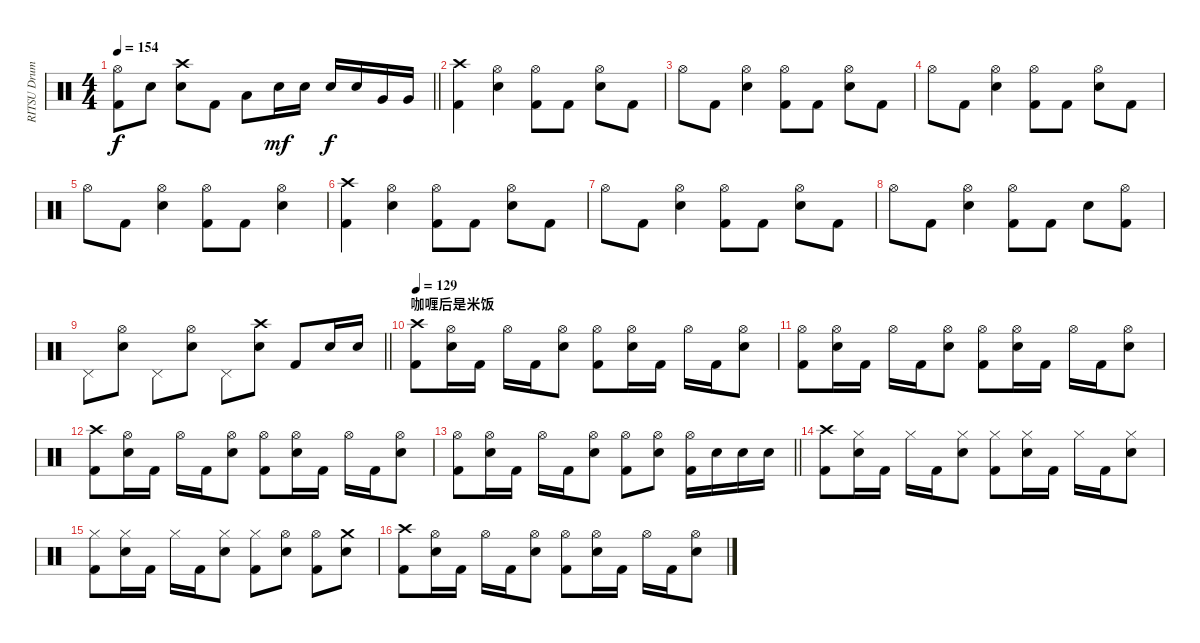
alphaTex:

\track ("RITSU Drums" "RITSU Drum") {instrument percussion}
\staff {score}
\articulation defaults
\ts (4 4)
\tempo 154
\clef neutral
\barLineRight lightlight
\ks c
("Hi-Hat (open)" "Kick (hit) 2").8{dy f} "Electric Snare (hit)".8 ("Crash high (hit)" "Electric Snare (hit)").8 "Kick (hit) 2".8 "Low Tom (hit)".8 "Electric Snare (hit)".16{dy mf} "Electric Snare (hit)".16 "Electric Snare (hit)".16{dy f} "Electric Snare (hit)".16 "Very Low Tom (hit)".16 "Very Low Tom (hit)".16 |
("Crash high (hit)" "Kick (hit) 2").4 ("Hi-Hat (open)" "Electric Snare (hit)").4 ("Hi-Hat (open)" "Kick (hit) 2").8 "Kick (hit) 2".8 ("Hi-Hat (open)" "Electric Snare (hit)").8 "Kick (hit) 2".8 |
"Hi-Hat (open)".8 "Kick (hit) 2".8 ("Hi-Hat (open)" "Electric Snare (hit)").4 ("Hi-Hat (open)" "Kick (hit) 2").8 "Kick (hit) 2".8 ("Hi-Hat (open)" "Electric Snare (hit)").8 "Kick (hit) 2".8 |
"Hi-Hat (open)".8 "Kick (hit) 2".8 ("Hi-Hat (open)" "Electric Snare (hit)").4 ("Hi-Hat (open)" "Kick (hit) 2").8 "Kick (hit) 2".8 ("Hi-Hat (open)" "Electric Snare (hit)").8 "Kick (hit) 2".8 |
"Hi-Hat (open)".8 "Kick (hit) 2".8 ("Hi-Hat (open)" "Electric Snare (hit)").4 ("Hi-Hat (open)" "Kick (hit) 2").8 "Kick (hit) 2".8 ("Hi-Hat (open)" "Electric Snare (hit)").4 |
("Crash high (hit)" "Kick (hit) 2").4 ("Hi-Hat (open)" "Electric Snare (hit)").4 ("Hi-Hat (open)" "Kick (hit) 2").8 "Kick (hit) 2".8 ("Hi-Hat (open)" "Electric Snare (hit)").8 "Kick (hit) 2".8 |
"Hi-Hat (open)".8 "Kick (hit) 2".8 ("Hi-Hat (open)" "Electric Snare (hit)").4 ("Hi-Hat (open)" "Kick (hit) 2").8 "Kick (hit) 2".8 ("Hi-Hat (open)" "Electric Snare (hit)").8 "Kick (hit) 2".8 |
"Hi-Hat (open)".8 "Kick (hit) 2".8 ("Hi-Hat (open)" "Electric Snare (hit)").4 ("Hi-Hat (open)" "Kick (hit) 2").8 "Kick (hit) 2".8 "Electric Snare (hit)".8 ("Hi-Hat (open)" "Kick (hit) 2").8 |
\barLineRight lightlight "Pedal Hi-Hat (hit)".8
("Hi-Hat (open)" "Electric Snare (hit)").8 "Pedal Hi-Hat (hit)".8 ("Hi-Hat (open)" "Electric Snare (hit)").8 "Pedal Hi-Hat (hit)".8 ("Crash high (hit)" "Electric Snare (hit)").8 "Kick (hit) 2".8 "Electric Snare (hit)".16 "Electric Snare (hit)".16 |
\section ("" "咖喱后是米饭")
\tempo 129
("Crash high (hit)" "Kick (hit) 2").8 ("Hi-Hat (open)" "Electric Snare (hit)").16 "Kick (hit) 2".16 "Hi-Hat (open)".16 "Kick (hit) 2".16 ("Hi-Hat (open)" "Electric Snare (hit)").8 ("Hi-Hat (open)" "Kick (hit) 2").8 ("Hi-Hat (open)" "Electric Snare (hit)").16 "Kick (hit) 2".16 "Hi-Hat (open)".16 "Kick (hit) 2".16 ("Hi-Hat (open)" "Electric Snare (hit)").8 |
("Hi-Hat (open)" "Kick (hit) 2").8 ("Hi-Hat (open)" "Electric Snare (hit)").16 "Kick (hit) 2".16 "Hi-Hat (open)".16 "Kick (hit) 2".16 ("Hi-Hat (open)" "Electric Snare (hit)").8 ("Hi-Hat (open)" "Kick (hit) 2").8 ("Hi-Hat (open)" "Electric Snare (hit)").16 "Kick (hit) 2".16 "Hi-Hat (open)".16 "Kick (hit) 2".16 ("Hi-Hat (open)" "Electric Snare (hit)").8 |
("Crash high (hit)" "Kick (hit) 2").8 ("Hi-Hat (open)" "Electric Snare (hit)").16 "Kick (hit) 2".16 "Hi-Hat (open)".16 "Kick (hit) 2".16 ("Hi-Hat (open)" "Electric Snare (hit)").8 ("Hi-Hat (open)" "Kick (hit) 2").8 ("Hi-Hat (open)" "Electric Snare (hit)").16 "Kick (hit) 2".16 "Hi-Hat (open)".16 "Kick (hit) 2".16 ("Hi-Hat (open)" "Electric Snare (hit)").8 |
\barLineRight lightlight
("Hi-Hat (open)" "Kick (hit) 2").8 ("Hi-Hat (open)" "Electric Snare (hit)").16 "Kick (hit) 2".16 "Hi-Hat (open)".16 "Kick (hit) 2".16 ("Hi-Hat (open)" "Electric Snare (hit)").8 ("Hi-Hat (open)" "Kick (hit) 2").8 ("Hi-Hat (open)" "Electric Snare (hit)").8 ("Hi-Hat (open)" "Kick (hit) 2").16 "Electric Snare (hit)".16 "Electric Snare (hit)".16 "Electric Snare (hit)".16 |
("Crash high (hit)" "Kick (hit) 2").8 ("Hi-Hat (closed)" "Electric Snare (hit)").16 "Kick (hit) 2".16 "Hi-Hat (closed)".16 "Kick (hit) 2".16 ("Hi-Hat (closed)" "Electric Snare (hit)").8 ("Hi-Hat (closed)" "Kick (hit) 2").8 ("Hi-Hat (closed)" "Electric Snare (hit)").16 "Kick (hit) 2".16 "Hi-Hat (closed)".16 "Kick (hit) 2".16 ("Hi-Hat (closed)" "Electric Snare (hit)").8 |
("Hi-Hat (closed)" "Kick (hit) 2").8 ("Hi-Hat (closed)" "Electric Snare (hit)").16 "Kick (hit) 2".16 "Hi-Hat (closed)".16 "Kick (hit) 2".16 ("Hi-Hat (closed)" "Electric Snare (hit)").8 ("Hi-Hat (closed)" "Kick (hit) 2").8 ("Hi-Hat (open)" "Electric Snare (hit)").8 ("Hi-Hat (open)" "Kick (hit) 2").8 ("Crash medium (hit)" "Electric Snare (hit)").8 |
("Crash high (hit)" "Kick (hit) 2").8 ("Hi-Hat (open)" "Electric Snare (hit)").16 "Kick (hit) 2".16 "Hi-Hat (open)".16 "Kick (hit) 2".16 ("Hi-Hat (open)" "Electric Snare (hit)").8 ("Hi-Hat (open)" "Kick (hit) 2").8 ("Hi-Hat (open)" "Electric Snare (hit)").16 "Kick (hit) 2".16 "Hi-Hat (open)".16 "Kick (hit) 2".16 ("Hi-Hat (open)" "Electric Snare (hit)").8
